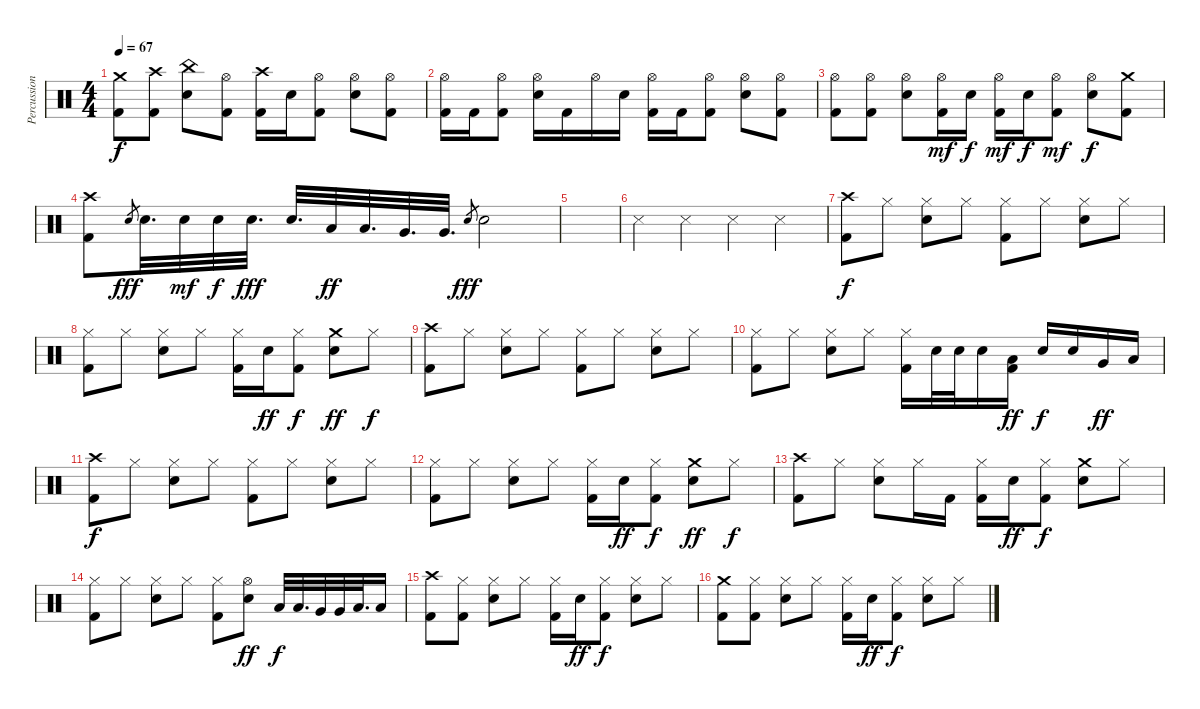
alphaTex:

\track ("Percussion" "Percussion") {instrument percussion}
\staff {score}
\articulation defaults
\ts (4 4)
\tempo 67
\clef neutral
\ks c
("Crash medium (hit)" "Kick (hit) 2").8{dy f} ("Crash high (hit)" "Kick (hit) 2").8 ("China (hit)" "Electric Snare (hit)").8 ("Hi-Hat (open)" "Kick (hit) 2").8 ("Crash high (hit)" "Kick (hit) 2").16 "Electric Snare (hit)".16 ("Hi-Hat (open)" "Kick (hit) 2").8 ("Hi-Hat (open)" "Electric Snare (hit)").8 ("Hi-Hat (open)" "Kick (hit) 2").8 |
("Hi-Hat (open)" "Kick (hit) 2").16 "Kick (hit) 2".16 ("Hi-Hat (open)" "Kick (hit) 2").8 ("Hi-Hat (open)" "Electric Snare (hit)").16 "Kick (hit) 2".16 "Hi-Hat (open)".16 "Electric Snare (hit)".16 ("Hi-Hat (open)" "Kick (hit) 2").16 "Kick (hit) 2".16 ("Hi-Hat (open)" "Kick (hit) 2").8 ("Hi-Hat (open)" "Electric Snare (hit)").8 ("Hi-Hat (open)" "Kick (hit) 2").8 |
("Hi-Hat (open)" "Kick (hit) 2").8 ("Hi-Hat (open)" "Kick (hit) 2").8 ("Hi-Hat (open)" "Electric Snare (hit)").8 ("Hi-Hat (open)" "Kick (hit) 2").16{dy mf} "Electric Snare (hit)".16{dy f} ("Hi-Hat (open)" "Kick (hit) 2").16{dy mf} "Electric Snare (hit)".16{dy f} ("Hi-Hat (open)" "Kick (hit) 2").8{dy mf} ("Hi-Hat (open)" "Electric Snare (hit)").8{dy f} ("Crash medium (hit)" "Kick (hit) 2").8 |
("Crash high (hit)" "Kick (hit) 2").8 "Electric Snare (hit)".8{gr dy fff} "Electric Snare (hit)".32{d} "Electric Snare (hit)".32{dy mf} "Electric Snare (hit)".32{dy f} "Electric Snare (hit)".32{d dy fff} "Electric Snare (hit)".32{d} "Low Tom (hit)".32{dy ff} "Low Tom (hit)".32{d} "Very Low Tom (hit)".32{d} "Very Low Tom (hit)".32{d} "Electric Snare (hit)".8{gr dy fff} "Electric Snare (hit)".2 |
|
"Metronome (hit)".4 "Metronome (hit)".4 "Metronome (hit)".4 "Metronome (hit)".4 |
("Crash high (hit)" "Kick (hit) 2").8{dy f} "Hi-Hat (closed)".8 ("Hi-Hat (closed)" "Electric Snare (hit)").8 "Hi-Hat (closed)".8 ("Hi-Hat (closed)" "Kick (hit) 2").8 "Hi-Hat (closed)".8 ("Hi-Hat (closed)" "Electric Snare (hit)").8 "Hi-Hat (closed)".8 |
("Hi-Hat (closed)" "Kick (hit) 2").8 "Hi-Hat (closed)".8 ("Hi-Hat (closed)" "Electric Snare (hit)").8 "Hi-Hat (closed)".8 ("Hi-Hat (closed)" "Kick (hit) 2").16 "Electric Snare (hit)".16{dy ff} ("Hi-Hat (closed)" "Kick (hit) 2").8{dy f} ("Crash medium (hit)" "Electric Snare (hit)").8{dy ff} "Hi-Hat (closed)".8{dy f} |
("Crash high (hit)" "Kick (hit) 2").8 "Hi-Hat (closed)".8 ("Hi-Hat (closed)" "Electric Snare (hit)").8 "Hi-Hat (closed)".8 ("Hi-Hat (closed)" "Kick (hit) 2").8 "Hi-Hat (closed)".8 ("Hi-Hat (closed)" "Electric Snare (hit)").8 "Hi-Hat (closed)".8 |
("Hi-Hat (closed)" "Kick (hit) 2").8 "Hi-Hat (closed)".8 ("Hi-Hat (closed)" "Electric Snare (hit)").8 "Hi-Hat (closed)".8 ("Hi-Hat (closed)" "Kick (hit) 2").16 "Electric Snare (hit)".32 "Electric Snare (hit)".32 "Electric Snare (hit)".16 ("Low Tom (hit)" "Kick (hit) 2").16{dy ff} "Electric Snare (hit)".16{dy f} "Electric Snare (hit)".16 "Very Low Tom (hit)".16{dy ff} "Low Floor Tom (hit)".16 |
("Crash high (hit)" "Kick (hit) 2").8{dy f} "Hi-Hat (closed)".8 ("Hi-Hat (closed)" "Electric Snare (hit)").8 "Hi-Hat (closed)".8 ("Hi-Hat (closed)" "Kick (hit) 2").8 "Hi-Hat (closed)".8 ("Hi-Hat (closed)" "Electric Snare (hit)").8 "Hi-Hat (closed)".8 |
("Hi-Hat (closed)" "Kick (hit) 2").8 "Hi-Hat (closed)".8 ("Hi-Hat (closed)" "Electric Snare (hit)").8 "Hi-Hat (closed)".8 ("Hi-Hat (closed)" "Kick (hit) 2").16 "Electric Snare (hit)".16{dy ff} ("Hi-Hat (closed)" "Kick (hit) 2").8{dy f} ("Crash medium (hit)" "Electric Snare (hit)").8{dy ff} "Hi-Hat (closed)".8{dy f} |
("Crash high (hit)" "Kick (hit) 2").8 "Hi-Hat (closed)".8 ("Hi-Hat (closed)" "Electric Snare (hit)").8 "Hi-Hat (closed)".16 "Kick (hit) 2".16 ("Hi-Hat (closed)" "Kick (hit) 2").16 "Electric Snare (hit)".16{dy ff} ("Hi-Hat (closed)" "Kick (hit) 2").8{dy f} ("Crash medium (hit)" "Electric Snare (hit)").8 "Hi-Hat (closed)".8 |
("Hi-Hat (closed)" "Kick (hit) 2").8 "Hi-Hat (closed)".8 ("Hi-Hat (closed)" "Electric Snare (hit)").8 "Hi-Hat (closed)".8 ("Hi-Hat (closed)" "Kick (hit) 2").8 ("Hi-Hat (open)" "Electric Snare (hit)").8{dy ff} "Low Tom (hit)".32{dy f} "Low Tom (hit)".32{d} "Very Low Tom (hit)".32 "Very Low Tom (hit)".32 "Low Floor Tom (hit)".32{d} "Low Floor Tom (hit)".16 |
("Crash high (hit)" "Kick (hit) 2").8 ("Hi-Hat (closed)" "Kick (hit) 2").8 ("Hi-Hat (closed)" "Electric Snare (hit)").8 "Hi-Hat (closed)".8 ("Hi-Hat (closed)" "Kick (hit) 2").16 "Electric Snare (hit)".16{dy ff} ("Hi-Hat (closed)" "Kick (hit) 2").8{dy f} ("Hi-Hat (closed)" "Electric Snare (hit)").8 "Hi-Hat (closed)".8 |
("Crash medium (hit)" "Kick (hit) 2").8 ("Hi-Hat (closed)" "Kick (hit) 2").8 ("Hi-Hat (closed)" "Electric Snare (hit)").8 "Hi-Hat (closed)".8 ("Hi-Hat (closed)" "Kick (hit) 2").16 "Electric Snare (hit)".16{dy ff} ("Hi-Hat (closed)" "Kick (hit) 2").8{dy f} ("Hi-Hat (closed)" "Electric Snare (hit)").8 "Hi-Hat (closed)".8
